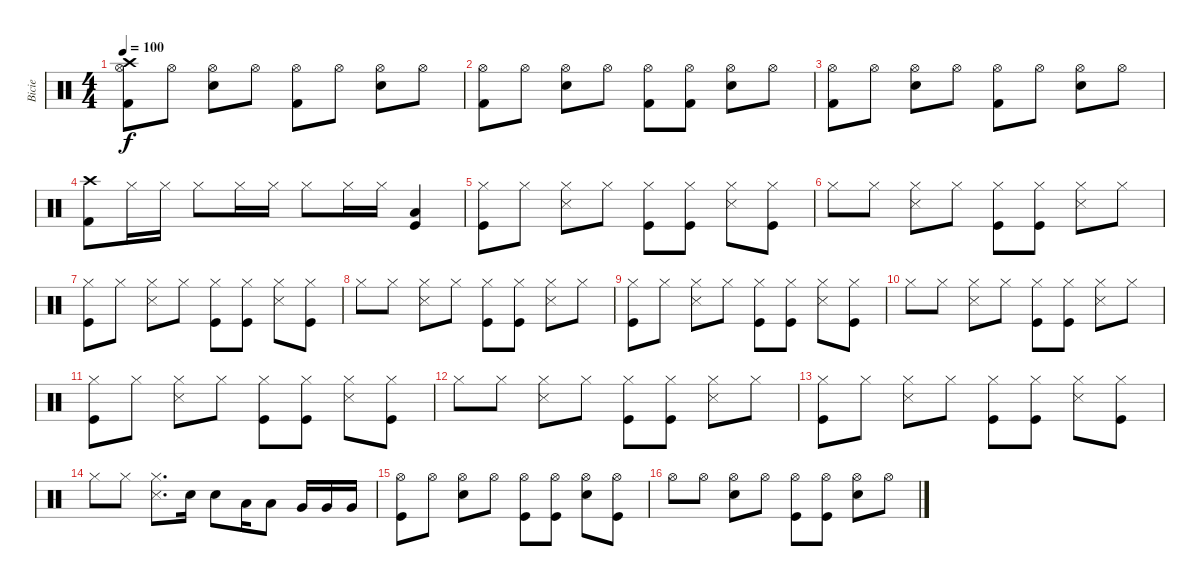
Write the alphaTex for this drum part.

\track ("Bicie" "Bicie") {instrument percussion}
\staff {score}
\articulation defaults
\ts (4 4)
\tempo 100
\clef neutral
\ks c
("Crash high (hit)" "Hi-Hat (open)" "Kick (hit) 2").8{dy f} "Hi-Hat (open)".8 ("Hi-Hat (open)" "Snare (hit) 2").8 "Hi-Hat (open)".8 ("Hi-Hat (open)" "Kick (hit) 2").8 "Hi-Hat (open)".8 ("Hi-Hat (open)" "Snare (hit) 2").8 "Hi-Hat (open)".8 |
("Hi-Hat (open)" "Kick (hit) 2").8 "Hi-Hat (open)".8 ("Hi-Hat (open)" "Snare (hit) 2").8 "Hi-Hat (open)".8 ("Hi-Hat (open)" "Kick (hit) 2").8 ("Hi-Hat (open)" "Kick (hit) 2").8 ("Hi-Hat (open)" "Snare (hit) 2").8 "Hi-Hat (open)".8 |
("Hi-Hat (open)" "Kick (hit) 2").8 "Hi-Hat (open)".8 ("Hi-Hat (open)" "Snare (hit) 2").8 "Hi-Hat (open)".8 ("Hi-Hat (open)" "Kick (hit) 2").8 "Hi-Hat (open)".8 ("Hi-Hat (open)" "Snare (hit) 2").8 "Hi-Hat (open)".8 |
("Crash high (hit)" "Kick (hit) 2").8 "Hi-Hat (closed)".16 "Hi-Hat (closed)".16 "Hi-Hat (closed)".8 "Hi-Hat (closed)".16 "Hi-Hat (closed)".16 "Hi-Hat (closed)".8 "Hi-Hat (closed)".16 "Hi-Hat (closed)".16 ("Low Floor Tom (hit)" "Kick (hit)").4 |
("Hi-Hat (closed)" "Kick (hit)").8 "Hi-Hat (closed)".8 ("Hi-Hat (closed)" "Snare (side stick) 3").8 "Hi-Hat (closed)".8 ("Hi-Hat (closed)" "Kick (hit)").8 ("Hi-Hat (closed)" "Kick (hit)").8 ("Hi-Hat (closed)" "Snare (side stick) 3").8 ("Hi-Hat (closed)" "Kick (hit)").8 |
"Hi-Hat (closed)".8 "Hi-Hat (closed)".8 ("Hi-Hat (closed)" "Snare (side stick) 3").8 "Hi-Hat (closed)".8 ("Hi-Hat (closed)" "Kick (hit)").8 ("Hi-Hat (closed)" "Kick (hit)").8 ("Hi-Hat (closed)" "Snare (side stick) 3").8 "Hi-Hat (closed)".8 |
("Hi-Hat (closed)" "Kick (hit)").8 "Hi-Hat (closed)".8 ("Hi-Hat (closed)" "Snare (side stick) 3").8 "Hi-Hat (closed)".8 ("Hi-Hat (closed)" "Kick (hit)").8 ("Hi-Hat (closed)" "Kick (hit)").8 ("Hi-Hat (closed)" "Snare (side stick) 3").8 ("Hi-Hat (closed)" "Kick (hit)").8 |
"Hi-Hat (closed)".8 "Hi-Hat (closed)".8 ("Hi-Hat (closed)" "Snare (side stick) 3").8 "Hi-Hat (closed)".8 ("Hi-Hat (closed)" "Kick (hit)").8 ("Hi-Hat (closed)" "Kick (hit)").8 ("Hi-Hat (closed)" "Snare (side stick) 3").8 "Hi-Hat (closed)".8 |
("Hi-Hat (closed)" "Kick (hit)").8 "Hi-Hat (closed)".8 ("Hi-Hat (closed)" "Snare (side stick) 3").8 "Hi-Hat (closed)".8 ("Hi-Hat (closed)" "Kick (hit)").8 ("Hi-Hat (closed)" "Kick (hit)").8 ("Hi-Hat (closed)" "Snare (side stick) 3").8 ("Hi-Hat (closed)" "Kick (hit)").8 |
"Hi-Hat (closed)".8 "Hi-Hat (closed)".8 ("Hi-Hat (closed)" "Snare (side stick) 3").8 "Hi-Hat (closed)".8 ("Hi-Hat (closed)" "Kick (hit)").8 ("Hi-Hat (closed)" "Kick (hit)").8 ("Hi-Hat (closed)" "Snare (side stick) 3").8 "Hi-Hat (closed)".8 |
("Hi-Hat (closed)" "Kick (hit)").8 "Hi-Hat (closed)".8 ("Hi-Hat (closed)" "Snare (side stick) 3").8 "Hi-Hat (closed)".8 ("Hi-Hat (closed)" "Kick (hit)").8 ("Hi-Hat (closed)" "Kick (hit)").8 ("Hi-Hat (closed)" "Snare (side stick) 3").8 ("Hi-Hat (closed)" "Kick (hit)").8 |
"Hi-Hat (closed)".8 "Hi-Hat (closed)".8 ("Hi-Hat (closed)" "Snare (side stick) 3").8 "Hi-Hat (closed)".8 ("Hi-Hat (closed)" "Kick (hit)").8 ("Hi-Hat (closed)" "Kick (hit)").8 ("Hi-Hat (closed)" "Snare (side stick) 3").8 "Hi-Hat (closed)".8 |
("Hi-Hat (closed)" "Kick (hit)").8 "Hi-Hat (closed)".8 ("Hi-Hat (closed)" "Snare (side stick) 3").8 "Hi-Hat (closed)".8 ("Hi-Hat (closed)" "Kick (hit)").8 ("Hi-Hat (closed)" "Kick (hit)").8 ("Hi-Hat (closed)" "Snare (side stick) 3").8 ("Hi-Hat (closed)" "Kick (hit)").8 |
"Hi-Hat (closed)".8 "Hi-Hat (closed)".8 ("Hi-Hat (closed)" "Snare (side stick) 3").8{d} "Snare (hit) 2".16 "Snare (hit) 2".8 "Low Tom (hit)".16 "Low Tom (hit)".8 "Very Low Tom (hit)".16 "Very Low Tom (hit)".16 "Very Low Tom (hit)".16 |
("Hi-Hat (open)" "Kick (hit)").8 "Hi-Hat (open)".8 ("Hi-Hat (open)" "Snare (hit) 2").8 "Hi-Hat (open)".8 ("Hi-Hat (open)" "Kick (hit)").8 ("Hi-Hat (open)" "Kick (hit)").8 ("Hi-Hat (open)" "Snare (hit) 2").8 ("Hi-Hat (open)" "Kick (hit)").8 |
"Hi-Hat (open)".8 "Hi-Hat (open)".8 ("Hi-Hat (open)" "Snare (hit) 2").8 "Hi-Hat (open)".8 ("Hi-Hat (open)" "Kick (hit)").8 ("Hi-Hat (open)" "Kick (hit)").8 ("Hi-Hat (open)" "Snare (hit) 2").8 "Hi-Hat (open)".8
